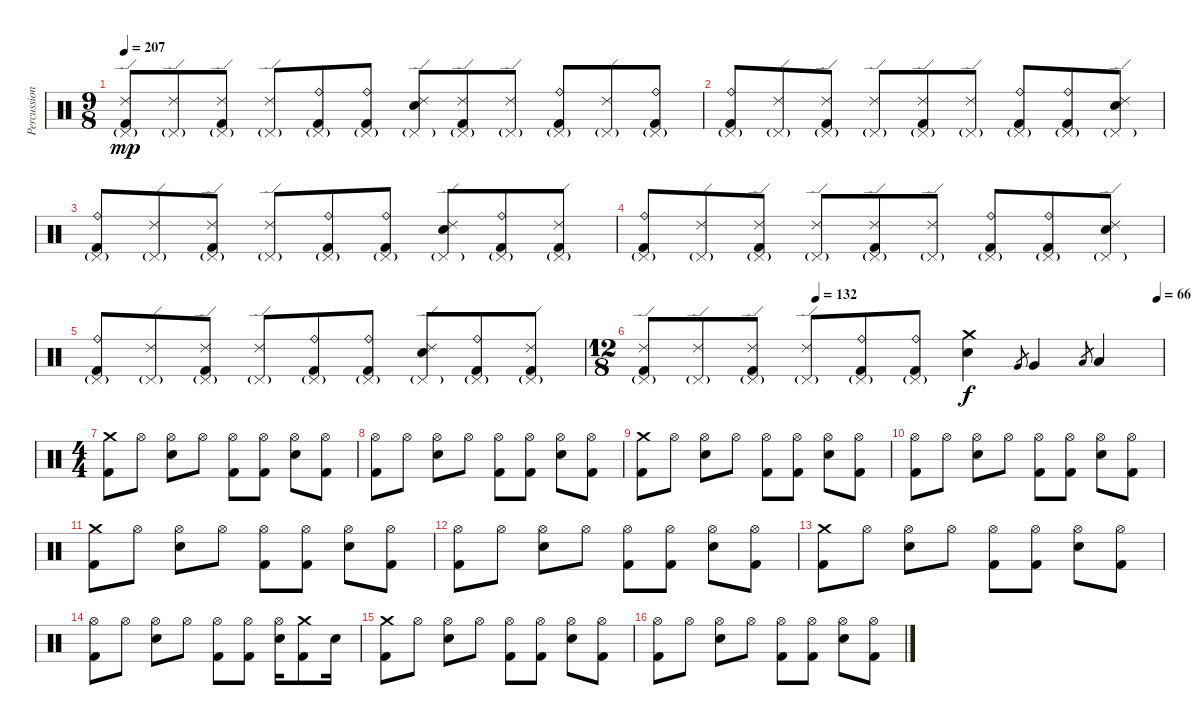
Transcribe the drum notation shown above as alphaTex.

\track ("Percussion" "Percussion") {instrument percussion}
\staff {score}
\articulation defaults
\ts (9 8)
\tempo 207
\clef neutral
\ks c
("Ride (edge) 2" "Pedal Hi-Hat (hit)"{g} "Kick (hit) 2").8{dy mp} ("Ride (edge) 2" "Pedal Hi-Hat (hit)"{g}).8 ("Ride (edge) 2" "Pedal Hi-Hat (hit)"{g} "Kick (hit) 2").8 ("Ride (edge) 2" "Pedal Hi-Hat (hit)"{g}).8 ("Ride (bell)" "Pedal Hi-Hat (hit)"{g} "Kick (hit) 2").8 ("Ride (bell)" "Pedal Hi-Hat (hit)"{g} "Kick (hit) 2").8 ("Ride (edge) 2" "Pedal Hi-Hat (hit)"{g} "Electric Snare (hit)").8 ("Ride (edge) 2" "Pedal Hi-Hat (hit)"{g} "Kick (hit) 2").8 ("Ride (edge) 2" "Pedal Hi-Hat (hit)"{g}).8 ("Ride (bell)" "Pedal Hi-Hat (hit)"{g} "Kick (hit) 2").8 ("Ride (edge) 2" "Pedal Hi-Hat (hit)"{g}).8 ("Ride (bell)" "Pedal Hi-Hat (hit)"{g} "Kick (hit) 2").8 |
("Ride (bell)" "Pedal Hi-Hat (hit)"{g} "Kick (hit) 2").8 ("Ride (edge) 2" "Pedal Hi-Hat (hit)"{g}).8 ("Ride (edge) 2" "Pedal Hi-Hat (hit)"{g} "Kick (hit) 2").8 ("Ride (edge) 2" "Pedal Hi-Hat (hit)"{g}).8 ("Ride (edge) 2" "Pedal Hi-Hat (hit)"{g} "Kick (hit) 2").8 ("Ride (edge) 2" "Pedal Hi-Hat (hit)"{g}).8 ("Ride (bell)" "Pedal Hi-Hat (hit)"{g} "Kick (hit) 2").8 ("Ride (bell)" "Pedal Hi-Hat (hit)"{g} "Kick (hit) 2").8 ("Ride (edge) 2" "Pedal Hi-Hat (hit)"{g} "Electric Snare (hit)").8 |
("Ride (bell)" "Pedal Hi-Hat (hit)"{g} "Kick (hit) 2").8 ("Ride (edge) 2" "Pedal Hi-Hat (hit)"{g}).8 ("Ride (edge) 2" "Pedal Hi-Hat (hit)"{g} "Kick (hit) 2").8 ("Ride (edge) 2" "Pedal Hi-Hat (hit)"{g}).8 ("Ride (bell)" "Pedal Hi-Hat (hit)"{g} "Kick (hit) 2").8 ("Ride (bell)" "Pedal Hi-Hat (hit)"{g} "Kick (hit) 2").8 ("Ride (edge) 2" "Pedal Hi-Hat (hit)"{g} "Electric Snare (hit)").8 ("Ride (bell)" "Pedal Hi-Hat (hit)"{g} "Kick (hit) 2").8 ("Ride (edge) 2" "Pedal Hi-Hat (hit)"{g} "Kick (hit) 2").8 |
("Ride (bell)" "Pedal Hi-Hat (hit)"{g} "Kick (hit) 2").8 ("Ride (edge) 2" "Pedal Hi-Hat (hit)"{g}).8 ("Ride (edge) 2" "Pedal Hi-Hat (hit)"{g} "Kick (hit) 2").8 ("Ride (edge) 2" "Pedal Hi-Hat (hit)"{g}).8 ("Ride (edge) 2" "Pedal Hi-Hat (hit)"{g} "Kick (hit) 2").8 ("Ride (edge) 2" "Pedal Hi-Hat (hit)"{g}).8 ("Ride (bell)" "Pedal Hi-Hat (hit)"{g} "Kick (hit) 2").8 ("Ride (bell)" "Pedal Hi-Hat (hit)"{g} "Kick (hit) 2").8 ("Ride (edge) 2" "Pedal Hi-Hat (hit)"{g} "Electric Snare (hit)").8 |
("Ride (bell)" "Pedal Hi-Hat (hit)"{g} "Kick (hit) 2").8 ("Ride (edge) 2" "Pedal Hi-Hat (hit)"{g}).8 ("Ride (edge) 2" "Pedal Hi-Hat (hit)"{g} "Kick (hit) 2").8 ("Ride (edge) 2" "Pedal Hi-Hat (hit)"{g}).8 ("Ride (bell)" "Pedal Hi-Hat (hit)"{g} "Kick (hit) 2").8 ("Ride (bell)" "Pedal Hi-Hat (hit)"{g} "Kick (hit) 2").8 ("Ride (edge) 2" "Pedal Hi-Hat (hit)"{g} "Electric Snare (hit)").8 ("Ride (bell)" "Pedal Hi-Hat (hit)"{g} "Kick (hit) 2").8 ("Ride (edge) 2" "Pedal Hi-Hat (hit)"{g} "Kick (hit) 2").8 |
\ts (12 8)
\tempo (132 0.3333333333333333)
\tempo (66 0.9895833333333334)
("Ride (edge) 2" "Pedal Hi-Hat (hit)"{g} "Kick (hit) 2").8 ("Ride (edge) 2" "Pedal Hi-Hat (hit)"{g}).8 ("Ride (edge) 2" "Pedal Hi-Hat (hit)"{g} "Kick (hit) 2").8 ("Ride (edge) 2" "Pedal Hi-Hat (hit)"{g}).8 ("Ride (bell)" "Pedal Hi-Hat (hit)"{g} "Kick (hit) 2").8 ("Ride (bell)" "Pedal Hi-Hat (hit)"{g} "Kick (hit) 2").8 ("Crash medium (hit)" "Electric Snare (hit)").4{dy f} "Very Low Tom (hit)".8{gr} "Very Low Tom (hit)".4 "Low Floor Tom (hit)".8{gr} "Low Floor Tom (hit)".4 |
\ts (4 4)
("Crash medium (hit)" "Kick (hit) 2").8 "Hi-Hat (open)".8 ("Hi-Hat (open)" "Electric Snare (hit)").8 "Hi-Hat (open)".8 ("Hi-Hat (open)" "Kick (hit) 2").8 ("Hi-Hat (open)" "Kick (hit) 2").8 ("Hi-Hat (open)" "Electric Snare (hit)").8 ("Hi-Hat (open)" "Kick (hit) 2").8 |
("Hi-Hat (open)" "Kick (hit) 2").8 "Hi-Hat (open)".8 ("Hi-Hat (open)" "Electric Snare (hit)").8 "Hi-Hat (open)".8 ("Hi-Hat (open)" "Kick (hit) 2").8 ("Hi-Hat (open)" "Kick (hit) 2").8 ("Hi-Hat (open)" "Electric Snare (hit)").8 ("Hi-Hat (open)" "Kick (hit) 2").8 |
("Crash medium (hit)" "Kick (hit) 2").8 "Hi-Hat (open)".8 ("Hi-Hat (open)" "Electric Snare (hit)").8 "Hi-Hat (open)".8 ("Hi-Hat (open)" "Kick (hit) 2").8 ("Hi-Hat (open)" "Kick (hit) 2").8 ("Hi-Hat (open)" "Electric Snare (hit)").8 ("Hi-Hat (open)" "Kick (hit) 2").8 |
("Hi-Hat (open)" "Kick (hit) 2").8 "Hi-Hat (open)".8 ("Hi-Hat (open)" "Electric Snare (hit)").8 "Hi-Hat (open)".8 ("Hi-Hat (open)" "Kick (hit) 2").8 ("Hi-Hat (open)" "Kick (hit) 2").8 ("Hi-Hat (open)" "Electric Snare (hit)").8 ("Hi-Hat (open)" "Kick (hit) 2").8 |
("Crash medium (hit)" "Kick (hit) 2").8 "Hi-Hat (open)".8 ("Hi-Hat (open)" "Electric Snare (hit)").8 "Hi-Hat (open)".8 ("Hi-Hat (open)" "Kick (hit) 2").8 ("Hi-Hat (open)" "Kick (hit) 2").8 ("Hi-Hat (open)" "Electric Snare (hit)").8 ("Hi-Hat (open)" "Kick (hit) 2").8 |
("Hi-Hat (open)" "Kick (hit) 2").8 "Hi-Hat (open)".8 ("Hi-Hat (open)" "Electric Snare (hit)").8 "Hi-Hat (open)".8 ("Hi-Hat (open)" "Kick (hit) 2").8 ("Hi-Hat (open)" "Kick (hit) 2").8 ("Hi-Hat (open)" "Electric Snare (hit)").8 ("Hi-Hat (open)" "Kick (hit) 2").8 |
("Crash medium (hit)" "Kick (hit) 2").8 "Hi-Hat (open)".8 ("Hi-Hat (open)" "Electric Snare (hit)").8 "Hi-Hat (open)".8 ("Hi-Hat (open)" "Kick (hit) 2").8 ("Hi-Hat (open)" "Kick (hit) 2").8 ("Hi-Hat (open)" "Electric Snare (hit)").8 ("Hi-Hat (open)" "Kick (hit) 2").8 |
("Hi-Hat (open)" "Kick (hit) 2").8 "Hi-Hat (open)".8 ("Hi-Hat (open)" "Electric Snare (hit)").8 "Hi-Hat (open)".8 ("Hi-Hat (open)" "Kick (hit) 2").8 ("Hi-Hat (open)" "Kick (hit) 2").8 ("Hi-Hat (open)" "Electric Snare (hit)").16 ("Crash medium (hit)" "Kick (hit) 2").8 "Electric Snare (hit)".16 |
("Crash medium (hit)" "Kick (hit) 2").8 "Hi-Hat (open)".8 ("Hi-Hat (open)" "Electric Snare (hit)").8 "Hi-Hat (open)".8 ("Hi-Hat (open)" "Kick (hit) 2").8 ("Hi-Hat (open)" "Kick (hit) 2").8 ("Hi-Hat (open)" "Electric Snare (hit)").8 ("Hi-Hat (open)" "Kick (hit) 2").8 |
("Hi-Hat (open)" "Kick (hit) 2").8 "Hi-Hat (open)".8 ("Hi-Hat (open)" "Electric Snare (hit)").8 "Hi-Hat (open)".8 ("Hi-Hat (open)" "Kick (hit) 2").8 ("Hi-Hat (open)" "Kick (hit) 2").8 ("Hi-Hat (open)" "Electric Snare (hit)").8 ("Hi-Hat (open)" "Kick (hit) 2").8
